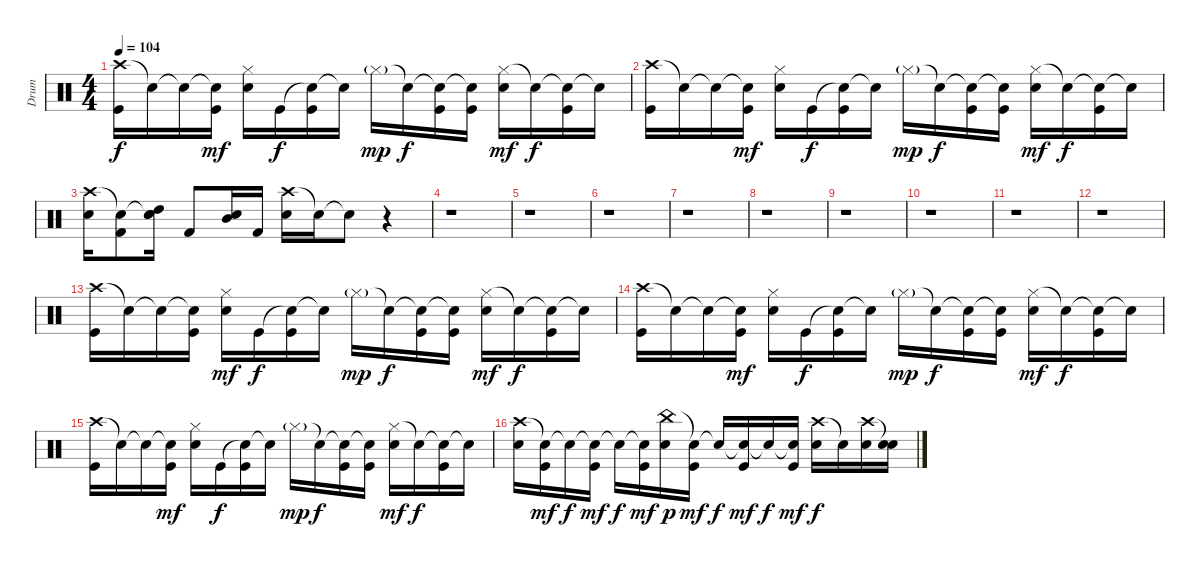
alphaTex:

\track ("Drum" "Drum") {instrument percussion}
\staff {score}
\articulation defaults
\ts (4 4)
\tempo 104
\clef neutral
\ks c
("Crash high (hit)" "Kick (hit)").16{dy f} "Snare (hit)"{t}.16 "Snare (hit)"{t}.16 ("Snare (hit)"{t} "Kick (hit)").16{dy mf} ("Hi-Hat (closed)" "Snare (hit) 2").16 "Kick (hit)".16{dy f} ("Snare (hit)"{t} "Kick (hit)").16 "Snare (hit)"{t}.16 "Hi-Hat (closed)"{g}.16{dy mp} "Snare (hit)"{t}.16{dy f} ("Snare (hit)"{t} "Kick (hit)").16 ("Snare (hit)"{t} "Kick (hit)").16 ("Hi-Hat (closed)" "Snare (hit) 2").16{dy mf} "Snare (hit)"{t}.16{dy f} ("Snare (hit)"{t} "Kick (hit)").16 "Snare (hit)"{t}.16 |
("Crash high (hit)" "Kick (hit)").16 "Snare (hit)"{t}.16 "Snare (hit)"{t}.16 ("Snare (hit)"{t} "Kick (hit)").16{dy mf} ("Hi-Hat (closed)" "Snare (hit) 2").16 "Kick (hit)".16{dy f} ("Snare (hit)"{t} "Kick (hit)").16 "Snare (hit)"{t}.16 "Hi-Hat (closed)"{g}.16{dy mp} "Snare (hit)"{t}.16{dy f} ("Snare (hit)"{t} "Kick (hit)").16 ("Snare (hit)"{t} "Kick (hit)").16 ("Hi-Hat (closed)" "Snare (hit) 2").16{dy mf} "Snare (hit)"{t}.16{dy f} ("Snare (hit)"{t} "Kick (hit)").16 "Snare (hit)"{t}.16 |
("Crash high (hit)" "Snare (hit) 2").16 ("Snare (hit)"{t} "Kick (hit) 2").8 ("Snare (hit)"{t} "High Tom (hit)" "Snare (hit) 2").16 "Kick (hit) 2".8 ("Mid Tom (hit)" "Snare (hit) 2").16 "Kick (hit) 2".16 ("Crash high (hit)" "Snare (hit) 2").16 "Snare (hit)"{t}.16 "Snare (hit)"{t}.8 r.4 |
r.1 |
r.1 |
r.1 |
r.1 |
r.1 |
r.1 |
r.1 |
r.1 |
r.1 |
("Crash high (hit)" "Kick (hit)").16 "Snare (hit)"{t}.16 "Snare (hit)"{t}.16 ("Snare (hit)"{t} "Kick (hit)").16 ("Hi-Hat (closed)" "Snare (hit) 2").16{dy mf} "Kick (hit)".16{dy f} ("Snare (hit)"{t} "Kick (hit)").16 "Snare (hit)"{t}.16 "Hi-Hat (closed)"{g}.16{dy mp} "Snare (hit)"{t}.16{dy f} ("Snare (hit)"{t} "Kick (hit)").16 ("Snare (hit)"{t} "Kick (hit)").16 ("Hi-Hat (closed)" "Snare (hit) 2").16{dy mf} "Snare (hit)"{t}.16{dy f} ("Snare (hit)"{t} "Kick (hit)").16 "Snare (hit)"{t}.16 |
("Crash high (hit)" "Kick (hit)").16 "Snare (hit)"{t}.16 "Snare (hit)"{t}.16 ("Snare (hit)"{t} "Kick (hit)").16{dy mf} ("Hi-Hat (closed)" "Snare (hit) 2").16 "Kick (hit)".16{dy f} ("Snare (hit)"{t} "Kick (hit)").16 "Snare (hit)"{t}.16 "Hi-Hat (closed)"{g}.16{dy mp} "Snare (hit)"{t}.16{dy f} ("Snare (hit)"{t} "Kick (hit)").16 ("Snare (hit)"{t} "Kick (hit)").16 ("Hi-Hat (closed)" "Snare (hit) 2").16{dy mf} "Snare (hit)"{t}.16{dy f} ("Snare (hit)"{t} "Kick (hit)").16 "Snare (hit)"{t}.16 |
("Crash high (hit)" "Kick (hit)").16 "Snare (hit)"{t}.16 "Snare (hit)"{t}.16 ("Snare (hit)"{t} "Kick (hit)").16{dy mf} ("Hi-Hat (closed)" "Snare (hit) 2").16 "Kick (hit)".16{dy f} ("Snare (hit)"{t} "Kick (hit)").16 "Snare (hit)"{t}.16 "Hi-Hat (closed)"{g}.16{dy mp} "Snare (hit)"{t}.16{dy f} ("Snare (hit)"{t} "Kick (hit)").16 ("Snare (hit)"{t} "Kick (hit)").16 ("Hi-Hat (closed)" "Snare (hit) 2").16{dy mf} "Snare (hit)"{t}.16{dy f} ("Snare (hit)"{t} "Kick (hit)").16 "Snare (hit)"{t}.16 |
("Crash high (hit)" "Snare (hit) 2").16 ("Snare (hit)"{t} "Kick (hit)").16{dy mf} "Snare (hit)"{t}.16{dy f} ("Snare (hit)"{t} "Kick (hit)").16{dy mf} "Snare (hit)"{t}.16{dy f} ("Snare (hit)"{t} "Kick (hit)").16{dy mf} ("China (hit)" "Snare (hit) 2").16{dy p} ("Snare (hit)"{t} "Kick (hit)").16{dy mf} "Snare (hit)"{t}.16{dy f} ("Snare (hit)"{t} "Kick (hit)").16{dy mf} "Snare (hit)"{t}.16{dy f} ("Snare (hit)"{t} "Kick (hit)").16{dy mf} ("Crash high (hit)" "Snare (hit) 2").16{dy f} "Snare (hit)"{t}.16 ("Crash high (hit)" "Snare (hit) 2").16 ("Snare (hit)"{t} "Snare (hit) 2").16
